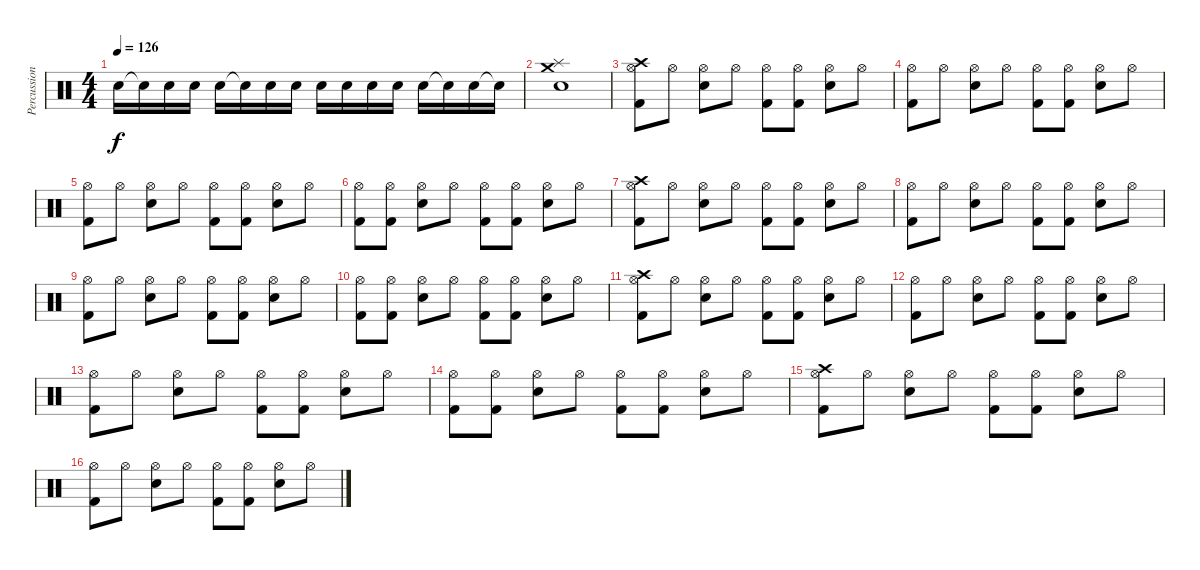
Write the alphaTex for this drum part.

\track ("Percussions" "Percussion") {instrument percussion}
\staff {score}
\articulation defaults
\ts (4 4)
\tempo 126
\clef neutral
\ks c "Electric Snare (hit)".16{dy f} "Snare (hit)"{t}.16 "Electric Snare (hit)".16 "Electric Snare (hit)".16 "Electric Snare (hit)".16 "Snare (hit)"{t}.16 "Electric Snare (hit)".16 "Electric Snare (hit)".16 "Electric Snare (hit)".16 "Electric Snare (hit)".16 "Electric Snare (hit)".16 "Electric Snare (hit)".16 "Electric Snare (hit)".16 "Snare (hit)"{t}.16 "Electric Snare (hit)".16 "Snare (hit)"{t}.16
|
("Crash medium (hit)" "Splash (hit)" "Electric Snare (hit)").1 |
("Hi-Hat (open)" "Crash high (hit)" "Kick (hit) 2").8 "Hi-Hat (open)".8 ("Hi-Hat (open)" "Electric Snare (hit)").8 "Hi-Hat (open)".8 ("Hi-Hat (open)" "Kick (hit) 2").8 ("Hi-Hat (open)" "Kick (hit) 2").8 ("Hi-Hat (open)" "Electric Snare (hit)").8 "Hi-Hat (open)".8 |
("Hi-Hat (open)" "Kick (hit) 2").8 "Hi-Hat (open)".8 ("Hi-Hat (open)" "Electric Snare (hit)").8 "Hi-Hat (open)".8 ("Hi-Hat (open)" "Kick (hit) 2").8 ("Hi-Hat (open)" "Kick (hit) 2").8 ("Hi-Hat (open)" "Electric Snare (hit)").8 "Hi-Hat (open)".8 |
("Hi-Hat (open)" "Kick (hit) 2").8 "Hi-Hat (open)".8 ("Hi-Hat (open)" "Electric Snare (hit)").8 "Hi-Hat (open)".8 ("Hi-Hat (open)" "Kick (hit) 2").8 ("Hi-Hat (open)" "Kick (hit) 2").8 ("Hi-Hat (open)" "Electric Snare (hit)").8 "Hi-Hat (open)".8 |
("Hi-Hat (open)" "Kick (hit) 2").8 ("Hi-Hat (open)" "Kick (hit) 2").8 ("Hi-Hat (open)" "Electric Snare (hit)").8 "Hi-Hat (open)".8 ("Hi-Hat (open)" "Kick (hit) 2").8 ("Hi-Hat (open)" "Kick (hit) 2").8 ("Hi-Hat (open)" "Electric Snare (hit)").8 "Hi-Hat (open)".8 |
("Hi-Hat (open)" "Crash high (hit)" "Kick (hit) 2").8 "Hi-Hat (open)".8 ("Hi-Hat (open)" "Electric Snare (hit)").8 "Hi-Hat (open)".8 ("Hi-Hat (open)" "Kick (hit) 2").8 ("Hi-Hat (open)" "Kick (hit) 2").8 ("Hi-Hat (open)" "Electric Snare (hit)").8 "Hi-Hat (open)".8 |
("Hi-Hat (open)" "Kick (hit) 2").8 "Hi-Hat (open)".8 ("Hi-Hat (open)" "Electric Snare (hit)").8 "Hi-Hat (open)".8 ("Hi-Hat (open)" "Kick (hit) 2").8 ("Hi-Hat (open)" "Kick (hit) 2").8 ("Hi-Hat (open)" "Electric Snare (hit)").8 "Hi-Hat (open)".8 |
("Hi-Hat (open)" "Kick (hit) 2").8 "Hi-Hat (open)".8 ("Hi-Hat (open)" "Electric Snare (hit)").8 "Hi-Hat (open)".8 ("Hi-Hat (open)" "Kick (hit) 2").8 ("Hi-Hat (open)" "Kick (hit) 2").8 ("Hi-Hat (open)" "Electric Snare (hit)").8 "Hi-Hat (open)".8 |
("Hi-Hat (open)" "Kick (hit) 2").8 ("Hi-Hat (open)" "Kick (hit) 2").8 ("Hi-Hat (open)" "Electric Snare (hit)").8 "Hi-Hat (open)".8 ("Hi-Hat (open)" "Kick (hit) 2").8 ("Hi-Hat (open)" "Kick (hit) 2").8 ("Hi-Hat (open)" "Electric Snare (hit)").8 "Hi-Hat (open)".8 |
("Hi-Hat (open)" "Crash high (hit)" "Kick (hit) 2").8 "Hi-Hat (open)".8 ("Hi-Hat (open)" "Electric Snare (hit)").8 "Hi-Hat (open)".8 ("Hi-Hat (open)" "Kick (hit) 2").8 ("Hi-Hat (open)" "Kick (hit) 2").8 ("Hi-Hat (open)" "Electric Snare (hit)").8 "Hi-Hat (open)".8 |
("Hi-Hat (open)" "Kick (hit) 2").8 "Hi-Hat (open)".8 ("Hi-Hat (open)" "Electric Snare (hit)").8 "Hi-Hat (open)".8 ("Hi-Hat (open)" "Kick (hit) 2").8 ("Hi-Hat (open)" "Kick (hit) 2").8 ("Hi-Hat (open)" "Electric Snare (hit)").8 "Hi-Hat (open)".8 |
("Hi-Hat (open)" "Kick (hit) 2").8 "Hi-Hat (open)".8 ("Hi-Hat (open)" "Electric Snare (hit)").8 "Hi-Hat (open)".8 ("Hi-Hat (open)" "Kick (hit) 2").8 ("Hi-Hat (open)" "Kick (hit) 2").8 ("Hi-Hat (open)" "Electric Snare (hit)").8 "Hi-Hat (open)".8 |
("Hi-Hat (open)" "Kick (hit) 2").8 ("Hi-Hat (open)" "Kick (hit) 2").8 ("Hi-Hat (open)" "Electric Snare (hit)").8 "Hi-Hat (open)".8 ("Hi-Hat (open)" "Kick (hit) 2").8 ("Hi-Hat (open)" "Kick (hit) 2").8 ("Hi-Hat (open)" "Electric Snare (hit)").8 "Hi-Hat (open)".8 |
("Hi-Hat (open)" "Crash high (hit)" "Kick (hit) 2").8 "Hi-Hat (open)".8 ("Hi-Hat (open)" "Electric Snare (hit)").8 "Hi-Hat (open)".8 ("Hi-Hat (open)" "Kick (hit) 2").8 ("Hi-Hat (open)" "Kick (hit) 2").8 ("Hi-Hat (open)" "Electric Snare (hit)").8 "Hi-Hat (open)".8 |
("Hi-Hat (open)" "Kick (hit) 2").8 "Hi-Hat (open)".8 ("Hi-Hat (open)" "Electric Snare (hit)").8 "Hi-Hat (open)".8 ("Hi-Hat (open)" "Kick (hit) 2").8 ("Hi-Hat (open)" "Kick (hit) 2").8 ("Hi-Hat (open)" "Electric Snare (hit)").8 "Hi-Hat (open)".8
